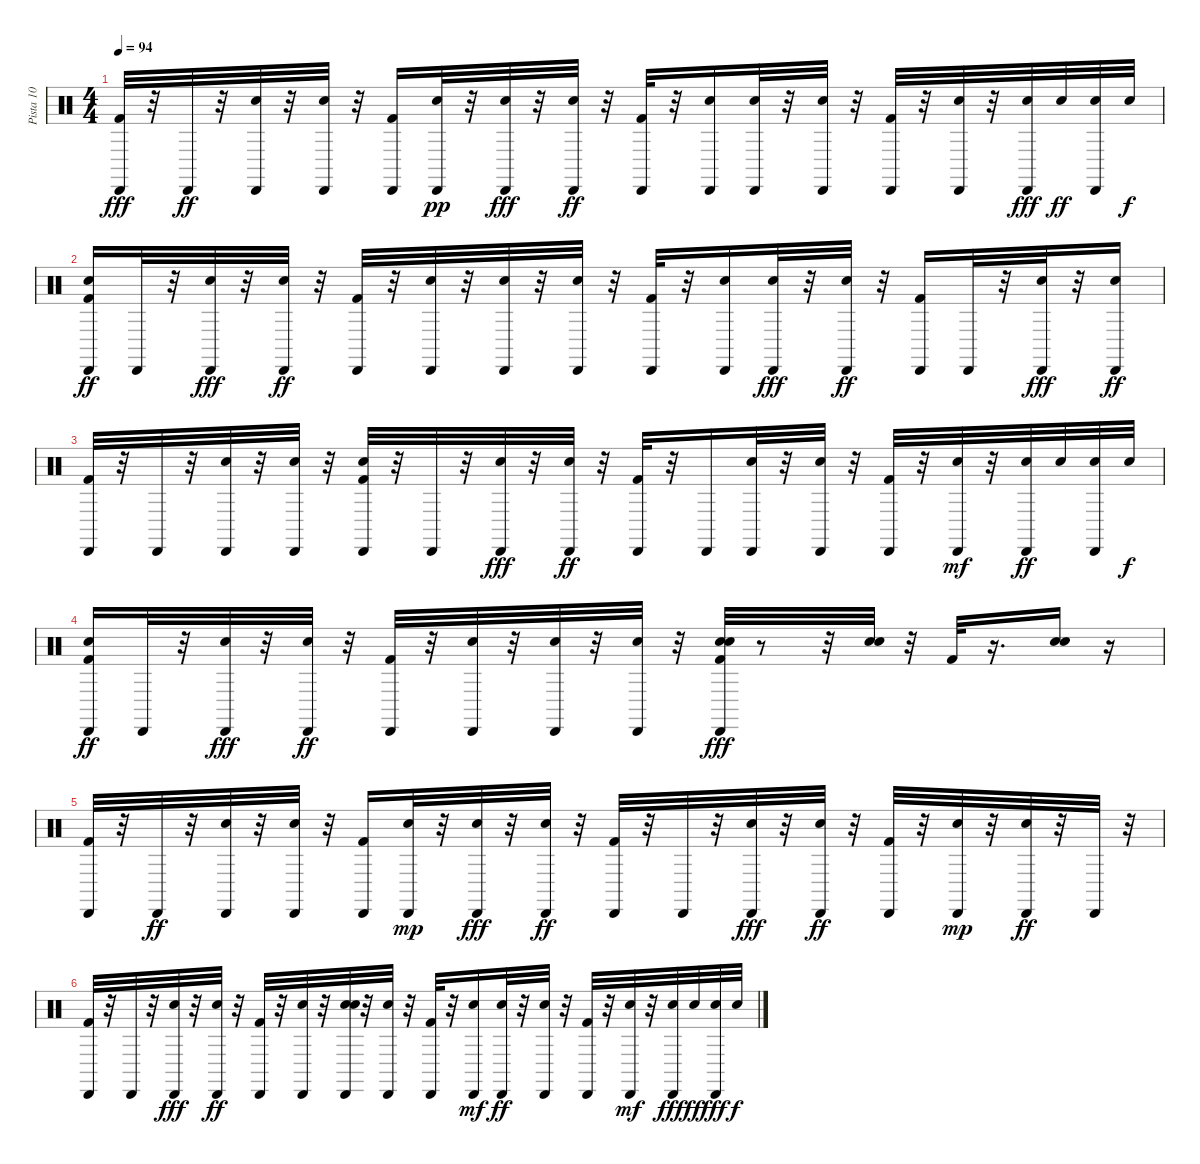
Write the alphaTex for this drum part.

\track ("Pista 10" "Pista 10") {instrument percussion}
\staff {score}
\articulation defaults
\ts (4 4)
\tempo 94
\clef neutral
\ks c
("Cabasa (hit)" "Kick (hit) 2").32{dy fff} r.32 "Cabasa (hit)".32{dy ff} r.32 ("Snare (hit) 2" "Cabasa (hit)").32 r.32 ("Electric Snare (hit)" "Cabasa (hit)").32 r.32 ("Kick (hit) 2" "Cabasa (hit)").16 ("Cabasa (hit)" "Electric Snare (hit)").32{dy pp} r.32 ("Cabasa (hit)" "Snare (hit) 2").32{dy fff} r.32 ("Cabasa (hit)" "Electric Snare (hit)").32{dy ff} r.32 ("Kick (hit) 2" "Cabasa (hit)").32 r.32 ("Electric Snare (hit)" "Cabasa (hit)").16 ("Snare (hit) 2" "Cabasa (hit)").32 r.32 ("Cabasa (hit)" "Electric Snare (hit)").32 r.32 ("Cabasa (hit)" "Kick (hit) 2").32 r.32 ("Cabasa (hit)" "Electric Snare (hit)").32 r.32 ("Cabasa (hit)" "Snare (hit) 2").32{dy fff} "Electric Snare (hit)".32{dy ff} ("Snare (hit) 2" "Cabasa (hit)").32 "Electric Snare (hit)".32{dy f} |
("Kick (hit) 2" "Snare (hit) 2" "Cabasa (hit)").16{dy ff} "Cabasa (hit)".32 r.32 ("Cabasa (hit)" "Snare (hit) 2").32{dy fff} r.32 ("Cabasa (hit)" "Electric Snare (hit)").32{dy ff} r.32 ("Cabasa (hit)" "Kick (hit) 2").32 r.32 ("Electric Snare (hit)" "Cabasa (hit)").32 r.32 ("Snare (hit) 2" "Cabasa (hit)").32 r.32 ("Electric Snare (hit)" "Cabasa (hit)").32 r.32 ("Cabasa (hit)" "Kick (hit) 2").32 r.32 ("Cabasa (hit)" "Electric Snare (hit)").16 ("Cabasa (hit)" "Snare (hit) 2").32{dy fff} r.32 ("Electric Snare (hit)" "Cabasa (hit)").32{dy ff} r.32 ("Kick (hit) 2" "Cabasa (hit)").16 "Cabasa (hit)".32 r.32 ("Cabasa (hit)" "Snare (hit) 2").32{dy fff} r.32 ("Cabasa (hit)" "Electric Snare (hit)").16{dy ff} |
("Cabasa (hit)" "Kick (hit) 2").32 r.32 "Cabasa (hit)".32 r.32 ("Snare (hit) 2" "Cabasa (hit)").32 r.32 ("Electric Snare (hit)" "Cabasa (hit)").32 r.32 ("Kick (hit) 2" "Snare (hit) 2" "Cabasa (hit)").32 r.32 "Cabasa (hit)".32 r.32 ("Cabasa (hit)" "Snare (hit) 2").32{dy fff} r.32 ("Cabasa (hit)" "Electric Snare (hit)").32{dy ff} r.32 ("Kick (hit) 2" "Cabasa (hit)").32 r.32 "Cabasa (hit)".16 ("Snare (hit) 2" "Cabasa (hit)").32 r.32 ("Cabasa (hit)" "Electric Snare (hit)").32 r.32 ("Cabasa (hit)" "Kick (hit) 2").32 r.32 ("Cabasa (hit)" "Electric Snare (hit)").32{dy mf} r.32 ("Snare (hit) 2" "Cabasa (hit)").32{dy ff} "Electric Snare (hit)".32 ("Snare (hit) 2" "Cabasa (hit)").32 "Electric Snare (hit)".32{dy f} |
("Kick (hit) 2" "Snare (hit) 2" "Cabasa (hit)").16{dy ff} "Cabasa (hit)".32 r.32 ("Cabasa (hit)" "Snare (hit) 2").32{dy fff} r.32 ("Cabasa (hit)" "Electric Snare (hit)").32{dy ff} r.32 ("Kick (hit) 2" "Cabasa (hit)").32 r.32 ("Electric Snare (hit)" "Cabasa (hit)").32 r.32 ("Snare (hit) 2" "Cabasa (hit)").32 r.32 ("Electric Snare (hit)" "Cabasa (hit)").32 r.32 ("Electric Snare (hit)" "Cabasa (hit)" "Snare (hit) 2" "Kick (hit) 2").32{dy fff} r.8 r.32 ("Electric Snare (hit)" "Snare (hit) 2").32 r.32 "Kick (hit) 2".32 r.16{d} ("Electric Snare (hit)" "Snare (hit) 2").16 r.16 |
("Cabasa (hit)" "Kick (hit) 2").32 r.32 "Cabasa (hit)".32{dy ff} r.32 ("Snare (hit) 2" "Cabasa (hit)").32 r.32 ("Electric Snare (hit)" "Cabasa (hit)").32 r.32 ("Cabasa (hit)" "Kick (hit) 2").16 ("Cabasa (hit)" "Electric Snare (hit)").32{dy mp} r.32 ("Cabasa (hit)" "Snare (hit) 2").32{dy fff} r.32 ("Electric Snare (hit)" "Cabasa (hit)").32{dy ff} r.32 ("Kick (hit) 2" "Cabasa (hit)").32 r.32 "Cabasa (hit)".32 r.32 ("Cabasa (hit)" "Snare (hit) 2").32{dy fff} r.32 ("Cabasa (hit)" "Electric Snare (hit)").32{dy ff} r.32 ("Cabasa (hit)" "Kick (hit) 2").32 r.32 ("Cabasa (hit)" "Electric Snare (hit)").32{dy mp} r.32 ("Snare (hit) 2" "Cabasa (hit)").32{dy ff} r.32 "Cabasa (hit)".32 r.32 |
("Kick (hit) 2" "Cabasa (hit)").32 r.32 "Cabasa (hit)".32 r.32 ("Cabasa (hit)" "Snare (hit) 2").32{dy fff} r.32 ("Cabasa (hit)" "Electric Snare (hit)").32{dy ff} r.32 ("Kick (hit) 2" "Cabasa (hit)").32 r.32 ("Electric Snare (hit)" "Cabasa (hit)").32 r.32 ("Snare (hit) 2" "Electric Snare (hit)" "Cabasa (hit)").32 r.32 ("Cabasa (hit)" "Electric Snare (hit)").32 r.32 ("Cabasa (hit)" "Kick (hit) 2").32 r.32 ("Cabasa (hit)" "Electric Snare (hit)").16{dy mf} ("Snare (hit) 2" "Cabasa (hit)").32{dy ff} r.32 ("Electric Snare (hit)" "Cabasa (hit)").32 r.32 ("Kick (hit) 2" "Cabasa (hit)").32 r.32 ("Cabasa (hit)" "Electric Snare (hit)").32{dy mf} r.32 ("Cabasa (hit)" "Snare (hit) 2").32{dy fff} "Electric Snare (hit)".32{dy ff} ("Cabasa (hit)" "Snare (hit) 2").32{dy fff} "Electric Snare (hit)".32{dy f}
